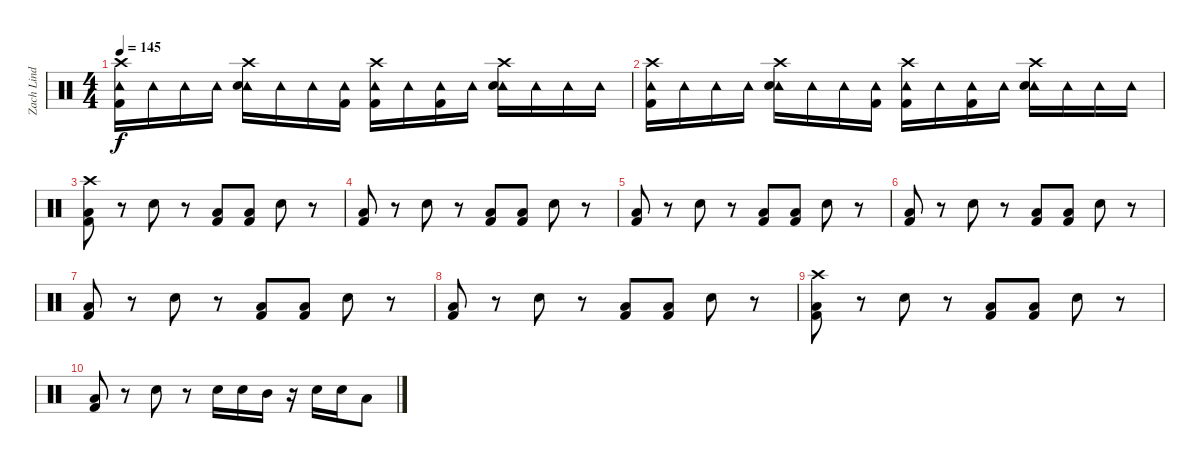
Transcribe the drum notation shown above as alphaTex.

\track ("Zach Lind" "Zach Lind") {instrument percussion}
\staff {score}
\articulation defaults
\ts (4 4)
\tempo 145
\clef neutral
\ks c
("Crash high (hit)" "Tambourine (hit)" "Kick (hit) 2").16{dy f} "Tambourine (hit)".16 "Tambourine (hit)".16 "Tambourine (hit)".16 ("Crash high (hit)" "Tambourine (hit)" "Snare (hit) 2").16 "Tambourine (hit)".16 "Tambourine (hit)".16 ("Tambourine (hit)" "Kick (hit) 2").16 ("Crash high (hit)" "Tambourine (hit)" "Kick (hit) 2").16 "Tambourine (hit)".16 ("Tambourine (hit)" "Kick (hit) 2").16 "Tambourine (hit)".16 ("Crash high (hit)" "Tambourine (hit)" "Snare (hit) 2").16 "Tambourine (hit)".16 "Tambourine (hit)".16 "Tambourine (hit)".16 |
("Crash high (hit)" "Tambourine (hit)" "Kick (hit) 2").16 "Tambourine (hit)".16 "Tambourine (hit)".16 "Tambourine (hit)".16 ("Crash high (hit)" "Tambourine (hit)" "Snare (hit) 2").16 "Tambourine (hit)".16 "Tambourine (hit)".16 ("Tambourine (hit)" "Kick (hit) 2").16 ("Crash high (hit)" "Tambourine (hit)" "Kick (hit) 2").16 "Tambourine (hit)".16 ("Tambourine (hit)" "Kick (hit) 2").16 "Tambourine (hit)".16 ("Crash high (hit)" "Tambourine (hit)" "Snare (hit) 2").16 "Tambourine (hit)".16 "Tambourine (hit)".16 "Tambourine (hit)".16 |
("Crash high (hit)" "Low Floor Tom (hit)" "Kick (hit) 2").8 r.8 "Snare (hit) 2".8 r.8 ("Low Floor Tom (hit)" "Kick (hit) 2").8 ("Low Floor Tom (hit)" "Kick (hit) 2").8 "Snare (hit) 2".8 r.8 |
("Low Floor Tom (hit)" "Kick (hit) 2").8 r.8 "Snare (hit) 2".8 r.8 ("Low Floor Tom (hit)" "Kick (hit) 2").8 ("Low Floor Tom (hit)" "Kick (hit) 2").8 "Snare (hit) 2".8 r.8 |
("Low Floor Tom (hit)" "Kick (hit) 2").8 r.8 "Snare (hit) 2".8 r.8 ("Low Floor Tom (hit)" "Kick (hit) 2").8 ("Low Floor Tom (hit)" "Kick (hit) 2").8 "Snare (hit) 2".8 r.8 |
("Low Floor Tom (hit)" "Kick (hit) 2").8 r.8 "Snare (hit) 2".8 r.8 ("Low Floor Tom (hit)" "Kick (hit) 2").8 ("Low Floor Tom (hit)" "Kick (hit) 2").8 "Snare (hit) 2".8 r.8 |
("Low Floor Tom (hit)" "Kick (hit) 2").8 r.8 "Snare (hit) 2".8 r.8 ("Low Floor Tom (hit)" "Kick (hit) 2").8 ("Low Floor Tom (hit)" "Kick (hit) 2").8 "Snare (hit) 2".8 r.8 |
("Low Floor Tom (hit)" "Kick (hit) 2").8 r.8 "Snare (hit) 2".8 r.8 ("Low Floor Tom (hit)" "Kick (hit) 2").8 ("Low Floor Tom (hit)" "Kick (hit) 2").8 "Snare (hit) 2".8 r.8 |
("Crash high (hit)" "Low Floor Tom (hit)" "Kick (hit) 2").8 r.8 "Snare (hit) 2".8 r.8 ("Low Floor Tom (hit)" "Kick (hit) 2").8 ("Low Floor Tom (hit)" "Kick (hit) 2").8 "Snare (hit) 2".8 r.8 |
("Low Floor Tom (hit)" "Kick (hit) 2").8 r.8 "Snare (hit) 2".8 r.8 "Snare (hit) 2".16 "Snare (hit) 2".16 "Mid Tom (hit)".16 r.16 "Snare (hit) 2".16 "Snare (hit) 2".16 "Low Tom (hit)".8
